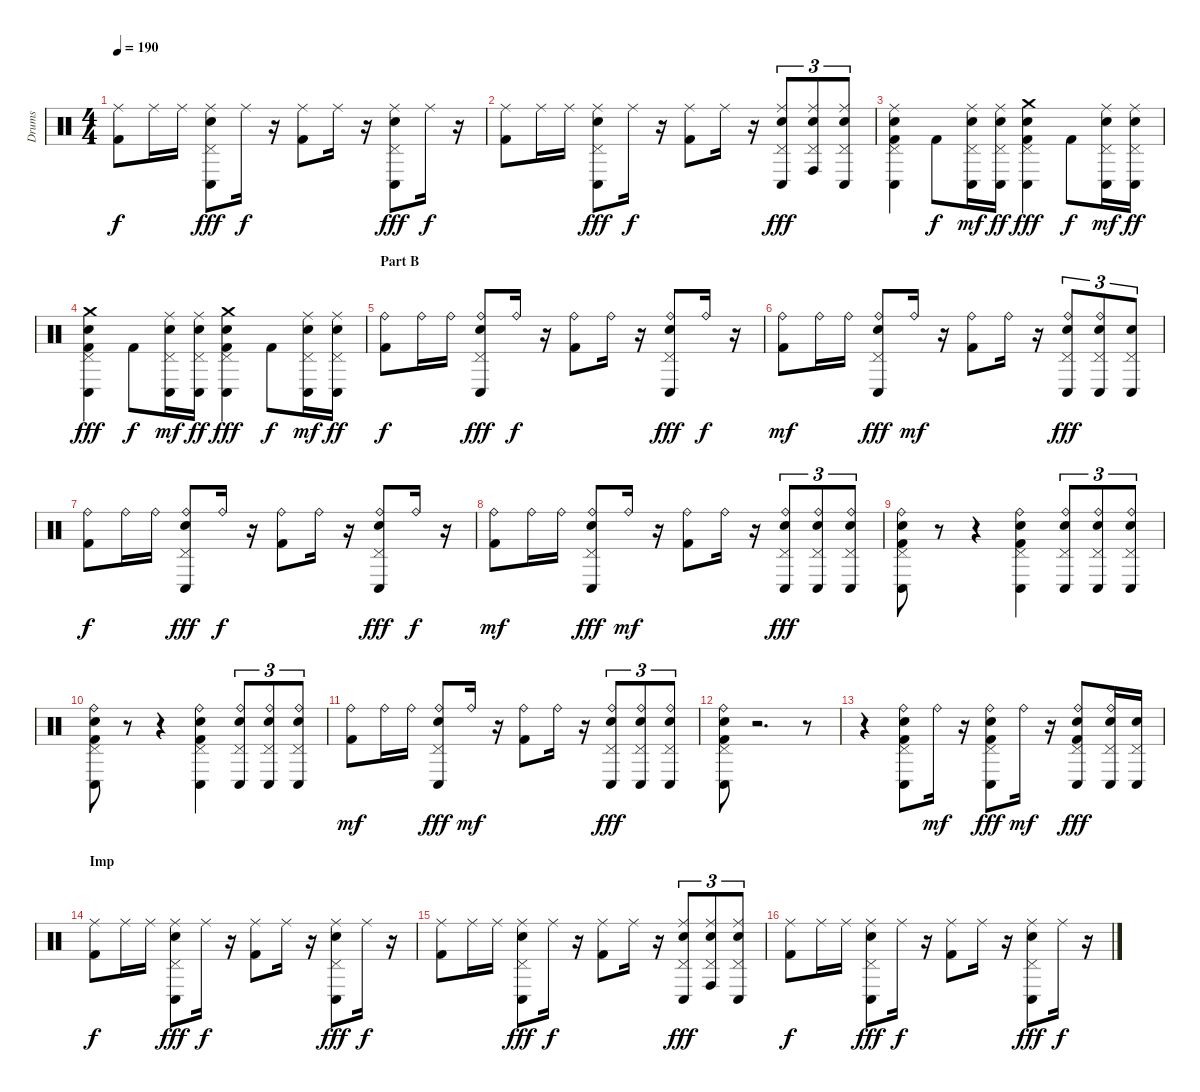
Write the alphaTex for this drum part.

\track ("Drums" "Drums") {instrument percussion}
\staff {score}
\articulation defaults
\ts (4 4)
\tempo 190
\clef neutral
\ks c
("Ride (middle)" "Kick (hit) 2").8{dy f} "Ride (middle)".16 "Ride (middle)".16 ("Ride (middle)" "Pedal Hi-Hat (hit)" "Conga low (hit)" "Electric Snare (hit)").8{dy fff} "Ride (middle)".16{dy f} r.16 ("Ride (middle)" "Kick (hit) 2").8 "Ride (middle)".16 r.16 ("Ride (middle)" "Pedal Hi-Hat (hit)" "Conga low (hit)" "Electric Snare (hit)").8{dy fff} "Ride (middle)".16{dy f} r.16 |
("Ride (middle)" "Kick (hit) 2").8 "Ride (middle)".16 "Ride (middle)".16 ("Ride (middle)" "Pedal Hi-Hat (hit)" "Conga low (hit)" "Electric Snare (hit)").8{dy fff} "Ride (middle)".16{dy f} r.16 ("Ride (middle)" "Kick (hit) 2").8 "Ride (middle)".16 r.16 ("Ride (middle)" "Pedal Hi-Hat (hit)" "Conga low (hit)" "Electric Snare (hit)").8{tu (3 2) dy fff} ("Ride (middle)" "Pedal Hi-Hat (hit)" "Conga high (hit)" "Electric Snare (hit)").8{tu (3 2)} ("Ride (middle)" "Pedal Hi-Hat (hit)" "Conga low (hit)" "Electric Snare (hit)").8{tu (3 2)} |
("Ride (middle)" "Pedal Hi-Hat (hit)" "Conga low (hit)" "Electric Snare (hit)" "Kick (hit) 2").4 "Kick (hit) 2".8{dy f} ("Ride (middle)" "Pedal Hi-Hat (hit)" "Conga low (hit)" "Electric Snare (hit)").16{dy mf} ("Ride (middle)" "Pedal Hi-Hat (hit)" "Conga low (hit)" "Electric Snare (hit)").16{dy ff} ("Crash medium (hit)" "Pedal Hi-Hat (hit)" "Conga low (hit)" "Electric Snare (hit)" "Kick (hit) 2").4{dy fff} "Kick (hit) 2".8{dy f} ("Ride (middle)" "Pedal Hi-Hat (hit)" "Conga low (hit)" "Electric Snare (hit)").16{dy mf} ("Ride (middle)" "Pedal Hi-Hat (hit)" "Conga low (hit)" "Electric Snare (hit)").16{dy ff} |
("Crash medium (hit)" "Pedal Hi-Hat (hit)" "Conga low (hit)" "Electric Snare (hit)" "Kick (hit) 2").4{dy fff} "Kick (hit) 2".8{dy f} ("Ride (middle)" "Pedal Hi-Hat (hit)" "Conga low (hit)" "Electric Snare (hit)").16{dy mf} ("Ride (middle)" "Pedal Hi-Hat (hit)" "Conga low (hit)" "Electric Snare (hit)").16{dy ff} ("Crash medium (hit)" "Pedal Hi-Hat (hit)" "Conga low (hit)" "Electric Snare (hit)" "Kick (hit) 2").4{dy fff} "Kick (hit) 2".8{dy f} ("Ride (middle)" "Pedal Hi-Hat (hit)" "Conga low (hit)" "Electric Snare (hit)").16{dy mf} ("Ride (middle)" "Pedal Hi-Hat (hit)" "Conga low (hit)" "Electric Snare (hit)").16{dy ff} |
\section ("" "Part B")
("Ride (bell)" "Kick (hit) 2").8{dy f} "Ride (bell)".16 "Ride (bell)".16 ("Ride (bell)" "Pedal Hi-Hat (hit)" "Conga low (hit)" "Electric Snare (hit)").8{dy fff} "Ride (bell)".16{dy f} r.16 ("Ride (bell)" "Kick (hit) 2").8 "Ride (bell)".16 r.16 ("Ride (bell)" "Pedal Hi-Hat (hit)" "Conga low (hit)" "Electric Snare (hit)").8{dy fff} "Ride (bell)".16{dy f} r.16 |
("Ride (bell)" "Kick (hit) 2").8{dy mf} "Ride (bell)".16 "Ride (bell)".16 ("Ride (bell)" "Pedal Hi-Hat (hit)" "Conga low (hit)" "Electric Snare (hit)").8{dy fff} "Ride (bell)".16{dy mf} r.16 ("Ride (bell)" "Kick (hit) 2").8 "Ride (bell)".16 r.16 ("Ride (bell)" "Pedal Hi-Hat (hit)" "Conga low (hit)" "Electric Snare (hit)").8{tu (3 2) dy fff} ("Ride (bell)" "Pedal Hi-Hat (hit)" "Conga low (hit)" "Electric Snare (hit)").8{tu (3 2)} ("Pedal Hi-Hat (hit)" "Conga low (hit)" "Electric Snare (hit)").8{tu (3 2)} |
("Ride (bell)" "Kick (hit) 2").8{dy f} "Ride (bell)".16 "Ride (bell)".16 ("Ride (bell)" "Pedal Hi-Hat (hit)" "Conga low (hit)" "Electric Snare (hit)").8{dy fff} "Ride (bell)".16{dy f} r.16 ("Ride (bell)" "Kick (hit) 2").8 "Ride (bell)".16 r.16 ("Ride (bell)" "Pedal Hi-Hat (hit)" "Conga low (hit)" "Electric Snare (hit)").8{dy fff} "Ride (bell)".16{dy f} r.16 |
("Ride (bell)" "Kick (hit) 2").8{dy mf} "Ride (bell)".16 "Ride (bell)".16 ("Ride (bell)" "Pedal Hi-Hat (hit)" "Conga low (hit)" "Electric Snare (hit)").8{dy fff} "Ride (bell)".16{dy mf} r.16 ("Ride (bell)" "Kick (hit) 2").8 "Ride (bell)".16 r.16 ("Ride (bell)" "Pedal Hi-Hat (hit)" "Conga low (hit)" "Electric Snare (hit)").8{tu (3 2) dy fff} ("Ride (bell)" "Pedal Hi-Hat (hit)" "Conga low (hit)" "Electric Snare (hit)").8{tu (3 2)} ("Ride (bell)" "Pedal Hi-Hat (hit)" "Conga low (hit)" "Electric Snare (hit)").8{tu (3 2)} |
("Ride (bell)" "Pedal Hi-Hat (hit)" "Conga low (hit)" "Electric Snare (hit)" "Kick (hit) 2").8 r.8 r.4 ("Ride (bell)" "Pedal Hi-Hat (hit)" "Conga low (hit)" "Electric Snare (hit)" "Kick (hit) 2").4 ("Ride (bell)" "Pedal Hi-Hat (hit)" "Conga low (hit)" "Electric Snare (hit)").8{tu (3 2)} ("Ride (bell)" "Pedal Hi-Hat (hit)" "Conga low (hit)" "Electric Snare (hit)").8{tu (3 2)} ("Ride (bell)" "Pedal Hi-Hat (hit)" "Conga low (hit)" "Electric Snare (hit)").8{tu (3 2)} |
("Ride (bell)" "Pedal Hi-Hat (hit)" "Conga low (hit)" "Electric Snare (hit)" "Kick (hit) 2").8 r.8 r.4 ("Ride (bell)" "Pedal Hi-Hat (hit)" "Conga low (hit)" "Electric Snare (hit)" "Kick (hit) 2").4 ("Ride (bell)" "Pedal Hi-Hat (hit)" "Conga low (hit)" "Electric Snare (hit)").8{tu (3 2)} ("Ride (bell)" "Pedal Hi-Hat (hit)" "Conga low (hit)" "Electric Snare (hit)").8{tu (3 2)} ("Ride (bell)" "Pedal Hi-Hat (hit)" "Conga low (hit)" "Electric Snare (hit)").8{tu (3 2)} |
("Ride (bell)" "Kick (hit) 2").8{dy mf} "Ride (bell)".16 "Ride (bell)".16 ("Ride (bell)" "Pedal Hi-Hat (hit)" "Conga low (hit)" "Electric Snare (hit)").8{dy fff} "Ride (bell)".16{dy mf} r.16 ("Ride (bell)" "Kick (hit) 2").8 "Ride (bell)".16 r.16 ("Ride (bell)" "Pedal Hi-Hat (hit)" "Conga low (hit)" "Electric Snare (hit)").8{tu (3 2) dy fff} ("Ride (bell)" "Pedal Hi-Hat (hit)" "Conga low (hit)" "Electric Snare (hit)").8{tu (3 2)} ("Ride (bell)" "Pedal Hi-Hat (hit)" "Conga low (hit)" "Electric Snare (hit)").8{tu (3 2)} |
("Ride (bell)" "Pedal Hi-Hat (hit)" "Conga low (hit)" "Electric Snare (hit)" "Kick (hit) 2").8 r.2{d} r.8 |
r.4 ("Ride (bell)" "Pedal Hi-Hat (hit)" "Conga low (hit)" "Electric Snare (hit)" "Kick (hit) 2").8 "Ride (bell)".16{dy mf} r.16 ("Ride (bell)" "Pedal Hi-Hat (hit)" "Conga low (hit)" "Electric Snare (hit)" "Kick (hit) 2").8{dy fff} "Ride (bell)".16{dy mf} r.16 ("Ride (bell)" "Pedal Hi-Hat (hit)" "Conga low (hit)" "Electric Snare (hit)" "Kick (hit) 2").8{dy fff} ("Ride (bell)" "Pedal Hi-Hat (hit)" "Conga low (hit)" "Electric Snare (hit)").16 ("Pedal Hi-Hat (hit)" "Conga low (hit)" "Electric Snare (hit)").16 |
\section ("" "Imp")
("Ride (middle)" "Kick (hit) 2").8{dy f} "Ride (middle)".16 "Ride (middle)".16 ("Ride (middle)" "Pedal Hi-Hat (hit)" "Conga low (hit)" "Electric Snare (hit)").8{dy fff} "Ride (middle)".16{dy f} r.16 ("Ride (middle)" "Kick (hit) 2").8 "Ride (middle)".16 r.16 ("Ride (middle)" "Pedal Hi-Hat (hit)" "Conga low (hit)" "Electric Snare (hit)").8{dy fff} "Ride (middle)".16{dy f} r.16 |
("Ride (middle)" "Kick (hit) 2").8 "Ride (middle)".16 "Ride (middle)".16 ("Ride (middle)" "Pedal Hi-Hat (hit)" "Conga low (hit)" "Electric Snare (hit)").8{dy fff} "Ride (middle)".16{dy f} r.16 ("Ride (middle)" "Kick (hit) 2").8 "Ride (middle)".16 r.16 ("Ride (middle)" "Pedal Hi-Hat (hit)" "Conga low (hit)" "Electric Snare (hit)").8{tu (3 2) dy fff} ("Ride (middle)" "Pedal Hi-Hat (hit)" "Conga high (hit)" "Electric Snare (hit)").8{tu (3 2)} ("Ride (middle)" "Pedal Hi-Hat (hit)" "Conga low (hit)" "Electric Snare (hit)").8{tu (3 2)} |
("Ride (middle)" "Kick (hit) 2").8{dy f} "Ride (middle)".16 "Ride (middle)".16 ("Ride (middle)" "Pedal Hi-Hat (hit)" "Conga low (hit)" "Electric Snare (hit)").8{dy fff} "Ride (middle)".16{dy f} r.16 ("Ride (middle)" "Kick (hit) 2").8 "Ride (middle)".16 r.16 ("Ride (middle)" "Pedal Hi-Hat (hit)" "Conga low (hit)" "Electric Snare (hit)").8{dy fff} "Ride (middle)".16{dy f} r.16
